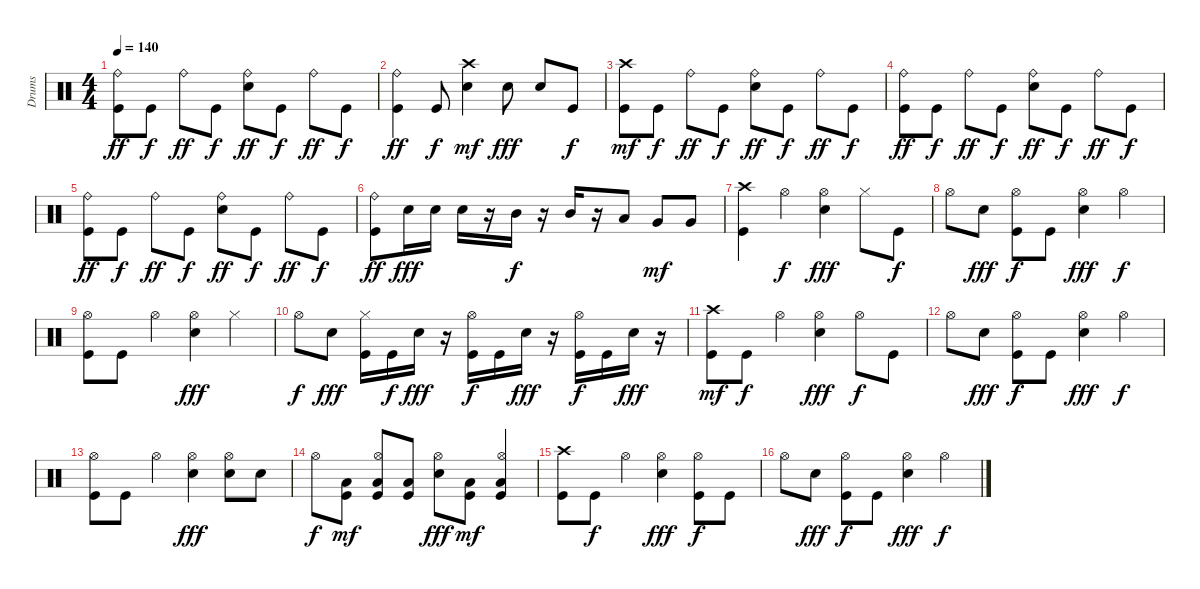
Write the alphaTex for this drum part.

\track ("Drums" "Drums") {instrument percussion}
\staff {score}
\articulation defaults
\ts (4 4)
\tempo 140
\clef neutral
\ks c
("Kick (hit)" "Ride (bell)").8{dy ff} "Kick (hit)".8{dy f} "Ride (bell)".8{dy ff} "Kick (hit)".8{dy f} ("Electric Snare (hit)" "Ride (bell)").8{dy ff} "Kick (hit)".8{dy f} "Ride (bell)".8{dy ff} "Kick (hit)".8{dy f} |
("Ride (bell)" "Kick (hit)").4{dy ff} "Kick (hit)".8{dy f} ("Electric Snare (hit)" "Crash high (hit)").4{dy mf} "Electric Snare (hit)".8{dy fff} "Electric Snare (hit)".8 "Kick (hit)".8{dy f} |
("Kick (hit)" "Crash high (hit)").8{dy mf} "Kick (hit)".8{dy f} "Ride (bell)".8{dy ff} "Kick (hit)".8{dy f} ("Electric Snare (hit)" "Ride (bell)").8{dy ff} "Kick (hit)".8{dy f} "Ride (bell)".8{dy ff} "Kick (hit)".8{dy f} |
("Kick (hit)" "Ride (bell)").8{dy ff} "Kick (hit)".8{dy f} "Ride (bell)".8{dy ff} "Kick (hit)".8{dy f} ("Electric Snare (hit)" "Ride (bell)").8{dy ff} "Kick (hit)".8{dy f} "Ride (bell)".8{dy ff} "Kick (hit)".8{dy f} |
("Kick (hit)" "Ride (bell)").8{dy ff} "Kick (hit)".8{dy f} "Ride (bell)".8{dy ff} "Kick (hit)".8{dy f} ("Electric Snare (hit)" "Ride (bell)").8{dy ff} "Kick (hit)".8{dy f} "Ride (bell)".8{dy ff} "Kick (hit)".8{dy f} |
("Kick (hit)" "Ride (bell)").8{dy ff} "Electric Snare (hit)".16{dy fff} "Electric Snare (hit)".16 "Electric Snare (hit)".16 r.16 "Mid Tom (hit)".16{dy f} r.16 "Mid Tom (hit)".16 r.16 "Low Tom (hit)".8 "Very Low Tom (hit)".8{dy mf} "Very Low Tom (hit)".8 |
("Kick (hit)" "Crash high (hit)").4 "Hi-Hat (open)".4{dy f} ("Electric Snare (hit)" "Hi-Hat (open)").4{dy fff} "Hi-Hat (closed)".8 "Kick (hit)".8{dy f} |
"Hi-Hat (open)".8 "Electric Snare (hit)".8{dy fff} ("Kick (hit)" "Hi-Hat (open)").8{dy f} "Kick (hit)".8 ("Electric Snare (hit)" "Hi-Hat (open)").4{dy fff} "Hi-Hat (open)".4{dy f} |
("Kick (hit)" "Hi-Hat (open)").8 "Kick (hit)".8 "Hi-Hat (open)".4 ("Electric Snare (hit)" "Hi-Hat (open)").4{dy fff} "Hi-Hat (closed)".4 |
"Hi-Hat (open)".8{dy f} "Electric Snare (hit)".8{dy fff} ("Kick (hit)" "Hi-Hat (closed)").16 "Kick (hit)".16{dy f} "Electric Snare (hit)".16{dy fff} r.16 ("Kick (hit)" "Hi-Hat (open)").16{dy f} "Kick (hit)".16 "Electric Snare (hit)".16{dy fff} r.16 ("Kick (hit)" "Hi-Hat (open)").16{dy f} "Kick (hit)".16 "Electric Snare (hit)".16{dy fff} r.16 |
("Kick (hit)" "Crash high (hit)").8{dy mf} "Kick (hit)".8{dy f} "Hi-Hat (open)".4 ("Electric Snare (hit)" "Hi-Hat (open)").4{dy fff} "Hi-Hat (open)".8{dy f} "Kick (hit)".8 |
"Hi-Hat (open)".8 "Electric Snare (hit)".8{dy fff} ("Kick (hit)" "Hi-Hat (open)").8{dy f} "Kick (hit)".8 ("Electric Snare (hit)" "Hi-Hat (open)").4{dy fff} "Hi-Hat (open)".4{dy f} |
("Kick (hit)" "Hi-Hat (open)").8 "Kick (hit)".8 "Hi-Hat (open)".4 ("Electric Snare (hit)" "Hi-Hat (open)").4{dy fff} ("Electric Snare (hit)" "Hi-Hat (open)").8 "Electric Snare (hit)".8 |
"Hi-Hat (open)".8{dy f} ("Low Floor Tom (hit)" "Kick (hit)").8{dy mf} ("Low Floor Tom (hit)" "Kick (hit)" "Hi-Hat (open)").8 ("Low Floor Tom (hit)" "Kick (hit)").8 ("Electric Snare (hit)" "Hi-Hat (open)").8{dy fff} ("Low Floor Tom (hit)" "Kick (hit)").8{dy mf} ("Low Floor Tom (hit)" "Kick (hit)" "Hi-Hat (open)").4 |
("Kick (hit)" "Crash high (hit)").8 "Kick (hit)".8{dy f} "Hi-Hat (open)".4 ("Electric Snare (hit)" "Hi-Hat (open)").4{dy fff} ("Kick (hit)" "Hi-Hat (open)").8{dy f} "Kick (hit)".8 |
"Hi-Hat (open)".8 "Electric Snare (hit)".8{dy fff} ("Kick (hit)" "Hi-Hat (open)").8{dy f} "Kick (hit)".8 ("Electric Snare (hit)" "Hi-Hat (open)").4{dy fff} "Hi-Hat (open)".4{dy f}
